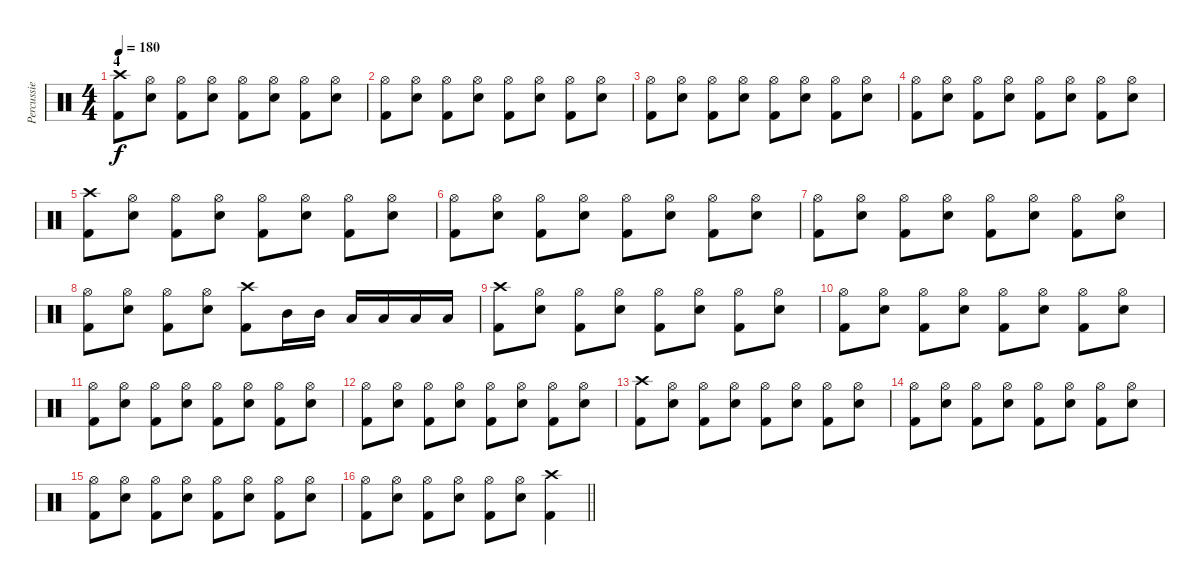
\track ("Percussie" "Percussie") {instrument percussion}
\staff {score}
\articulation defaults
\ts (4 4)
\section ("" "4")
\tempo 180
\clef neutral
\ks c
("Crash high (hit)" "Kick (hit) 2").8{dy f} ("Hi-Hat (open)" "Snare (hit) 2").8 ("Hi-Hat (open)" "Kick (hit) 2").8 ("Hi-Hat (open)" "Snare (hit) 2").8 ("Hi-Hat (open)" "Kick (hit) 2").8 ("Hi-Hat (open)" "Snare (hit) 2").8 ("Hi-Hat (open)" "Kick (hit) 2").8 ("Hi-Hat (open)" "Snare (hit) 2").8 |
("Hi-Hat (open)" "Kick (hit) 2").8 ("Hi-Hat (open)" "Snare (hit) 2").8 ("Hi-Hat (open)" "Kick (hit) 2").8 ("Hi-Hat (open)" "Snare (hit) 2").8 ("Hi-Hat (open)" "Kick (hit) 2").8 ("Hi-Hat (open)" "Snare (hit) 2").8 ("Hi-Hat (open)" "Kick (hit) 2").8 ("Hi-Hat (open)" "Snare (hit) 2").8 |
("Hi-Hat (open)" "Kick (hit) 2").8 ("Hi-Hat (open)" "Snare (hit) 2").8 ("Hi-Hat (open)" "Kick (hit) 2").8 ("Hi-Hat (open)" "Snare (hit) 2").8 ("Hi-Hat (open)" "Kick (hit) 2").8 ("Hi-Hat (open)" "Snare (hit) 2").8 ("Hi-Hat (open)" "Kick (hit) 2").8 ("Hi-Hat (open)" "Snare (hit) 2").8 |
("Hi-Hat (open)" "Kick (hit) 2").8 ("Hi-Hat (open)" "Snare (hit) 2").8 ("Hi-Hat (open)" "Kick (hit) 2").8 ("Hi-Hat (open)" "Snare (hit) 2").8 ("Hi-Hat (open)" "Kick (hit) 2").8 ("Hi-Hat (open)" "Snare (hit) 2").8 ("Hi-Hat (open)" "Kick (hit) 2").8 ("Hi-Hat (open)" "Snare (hit) 2").8 |
("Crash high (hit)" "Kick (hit) 2").8 ("Hi-Hat (open)" "Snare (hit) 2").8 ("Hi-Hat (open)" "Kick (hit) 2").8 ("Hi-Hat (open)" "Snare (hit) 2").8 ("Hi-Hat (open)" "Kick (hit) 2").8 ("Hi-Hat (open)" "Snare (hit) 2").8 ("Hi-Hat (open)" "Kick (hit) 2").8 ("Hi-Hat (open)" "Snare (hit) 2").8 |
("Hi-Hat (open)" "Kick (hit) 2").8 ("Hi-Hat (open)" "Snare (hit) 2").8 ("Hi-Hat (open)" "Kick (hit) 2").8 ("Hi-Hat (open)" "Snare (hit) 2").8 ("Hi-Hat (open)" "Kick (hit) 2").8 ("Hi-Hat (open)" "Snare (hit) 2").8 ("Hi-Hat (open)" "Kick (hit) 2").8 ("Hi-Hat (open)" "Snare (hit) 2").8 |
("Hi-Hat (open)" "Kick (hit) 2").8 ("Hi-Hat (open)" "Snare (hit) 2").8 ("Hi-Hat (open)" "Kick (hit) 2").8 ("Hi-Hat (open)" "Snare (hit) 2").8 ("Hi-Hat (open)" "Kick (hit) 2").8 ("Hi-Hat (open)" "Snare (hit) 2").8 ("Hi-Hat (open)" "Kick (hit) 2").8 ("Hi-Hat (open)" "Snare (hit) 2").8 |
("Hi-Hat (open)" "Kick (hit) 2").8 ("Hi-Hat (open)" "Snare (hit) 2").8 ("Hi-Hat (open)" "Kick (hit) 2").8 ("Hi-Hat (open)" "Snare (hit) 2").8 ("Crash high (hit)" "Kick (hit) 2").8 "Mid Tom (hit)".16 "Mid Tom (hit)".16 "Low Tom (hit)".16 "Low Tom (hit)".16 "Low Tom (hit)".16 "Low Tom (hit)".16 |
("Crash high (hit)" "Kick (hit) 2").8 ("Hi-Hat (open)" "Snare (hit) 2").8 ("Hi-Hat (open)" "Kick (hit) 2").8 ("Hi-Hat (open)" "Snare (hit) 2").8 ("Hi-Hat (open)" "Kick (hit) 2").8 ("Hi-Hat (open)" "Snare (hit) 2").8 ("Hi-Hat (open)" "Kick (hit) 2").8 ("Hi-Hat (open)" "Snare (hit) 2").8 |
("Hi-Hat (open)" "Kick (hit) 2").8 ("Hi-Hat (open)" "Snare (hit) 2").8 ("Hi-Hat (open)" "Kick (hit) 2").8 ("Hi-Hat (open)" "Snare (hit) 2").8 ("Hi-Hat (open)" "Kick (hit) 2").8 ("Hi-Hat (open)" "Snare (hit) 2").8 ("Hi-Hat (open)" "Kick (hit) 2").8 ("Hi-Hat (open)" "Snare (hit) 2").8 |
("Hi-Hat (open)" "Kick (hit) 2").8 ("Hi-Hat (open)" "Snare (hit) 2").8 ("Hi-Hat (open)" "Kick (hit) 2").8 ("Hi-Hat (open)" "Snare (hit) 2").8 ("Hi-Hat (open)" "Kick (hit) 2").8 ("Hi-Hat (open)" "Snare (hit) 2").8 ("Hi-Hat (open)" "Kick (hit) 2").8 ("Hi-Hat (open)" "Snare (hit) 2").8 |
("Hi-Hat (open)" "Kick (hit) 2").8 ("Hi-Hat (open)" "Snare (hit) 2").8 ("Hi-Hat (open)" "Kick (hit) 2").8 ("Hi-Hat (open)" "Snare (hit) 2").8 ("Hi-Hat (open)" "Kick (hit) 2").8 ("Hi-Hat (open)" "Snare (hit) 2").8 ("Hi-Hat (open)" "Kick (hit) 2").8 ("Hi-Hat (open)" "Snare (hit) 2").8 |
("Crash high (hit)" "Kick (hit) 2").8 ("Hi-Hat (open)" "Snare (hit) 2").8 ("Hi-Hat (open)" "Kick (hit) 2").8 ("Hi-Hat (open)" "Snare (hit) 2").8 ("Hi-Hat (open)" "Kick (hit) 2").8 ("Hi-Hat (open)" "Snare (hit) 2").8 ("Hi-Hat (open)" "Kick (hit) 2").8 ("Hi-Hat (open)" "Snare (hit) 2").8 |
("Hi-Hat (open)" "Kick (hit) 2").8 ("Hi-Hat (open)" "Snare (hit) 2").8 ("Hi-Hat (open)" "Kick (hit) 2").8 ("Hi-Hat (open)" "Snare (hit) 2").8 ("Hi-Hat (open)" "Kick (hit) 2").8 ("Hi-Hat (open)" "Snare (hit) 2").8 ("Hi-Hat (open)" "Kick (hit) 2").8 ("Hi-Hat (open)" "Snare (hit) 2").8 |
("Hi-Hat (open)" "Kick (hit) 2").8 ("Hi-Hat (open)" "Snare (hit) 2").8 ("Hi-Hat (open)" "Kick (hit) 2").8 ("Hi-Hat (open)" "Snare (hit) 2").8 ("Hi-Hat (open)" "Kick (hit) 2").8 ("Hi-Hat (open)" "Snare (hit) 2").8 ("Hi-Hat (open)" "Kick (hit) 2").8 ("Hi-Hat (open)" "Snare (hit) 2").8 |
\barLineRight lightlight
("Hi-Hat (open)" "Kick (hit) 2").8 ("Hi-Hat (open)" "Snare (hit) 2").8 ("Hi-Hat (open)" "Kick (hit) 2").8 ("Hi-Hat (open)" "Snare (hit) 2").8 ("Hi-Hat (open)" "Kick (hit) 2").8 ("Hi-Hat (open)" "Snare (hit) 2").8 ("Crash high (hit)" "Kick (hit) 2").4
